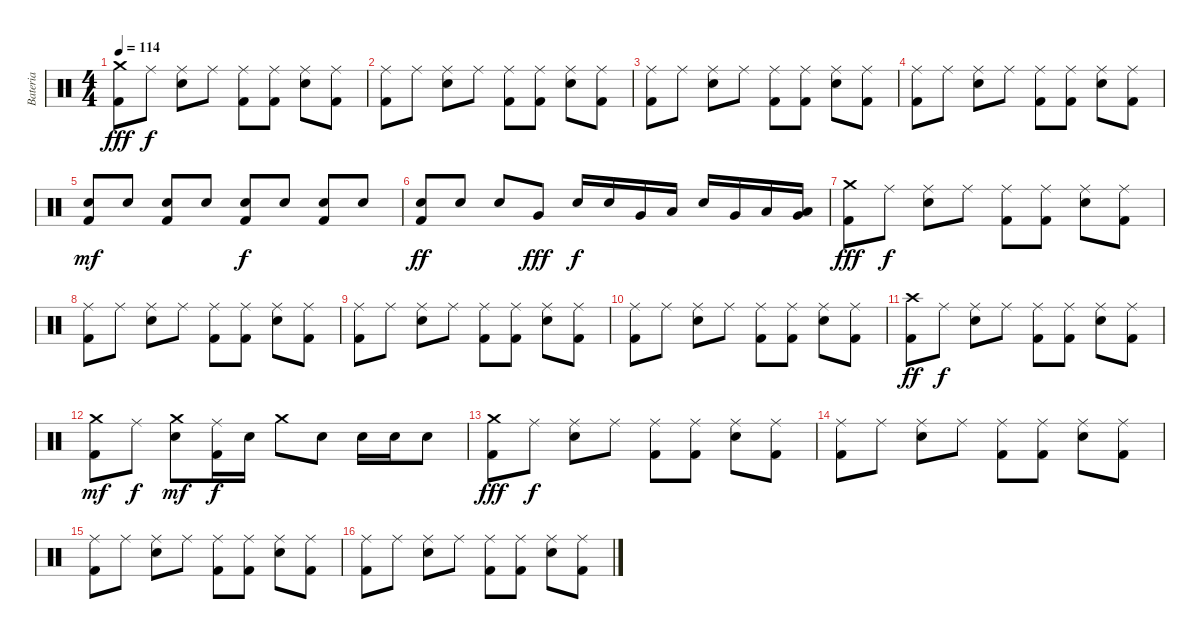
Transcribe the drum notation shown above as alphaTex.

\track ("Bateria" "Bateria") {instrument percussion}
\staff {score}
\articulation defaults
\ts (4 4)
\tempo 114
\clef neutral
\ks c
("Crash medium (hit)" "Kick (hit) 2").8{dy fff} "Ride (middle)".8{dy f} ("Ride (middle)" "Electric Snare (hit)").8 "Ride (middle)".8 ("Ride (middle)" "Kick (hit) 2").8 ("Ride (middle)" "Kick (hit) 2").8 ("Ride (middle)" "Electric Snare (hit)").8 ("Ride (middle)" "Kick (hit) 2").8 |
("Ride (middle)" "Kick (hit) 2").8 "Ride (middle)".8 ("Ride (middle)" "Electric Snare (hit)").8 "Ride (middle)".8 ("Ride (middle)" "Kick (hit) 2").8 ("Ride (middle)" "Kick (hit) 2").8 ("Ride (middle)" "Electric Snare (hit)").8 ("Ride (middle)" "Kick (hit) 2").8 |
("Ride (middle)" "Kick (hit) 2").8 "Ride (middle)".8 ("Ride (middle)" "Electric Snare (hit)").8 "Ride (middle)".8 ("Ride (middle)" "Kick (hit) 2").8 ("Ride (middle)" "Kick (hit) 2").8 ("Ride (middle)" "Electric Snare (hit)").8 ("Ride (middle)" "Kick (hit) 2").8 |
("Ride (middle)" "Kick (hit) 2").8 "Ride (middle)".8 ("Ride (middle)" "Electric Snare (hit)").8 "Ride (middle)".8 ("Ride (middle)" "Kick (hit) 2").8 ("Ride (middle)" "Kick (hit) 2").8 ("Ride (middle)" "Electric Snare (hit)").8 ("Ride (middle)" "Kick (hit) 2").8 |
("Electric Snare (hit)" "Kick (hit) 2").8{dy mf} "Electric Snare (hit)".8 ("Electric Snare (hit)" "Kick (hit) 2").8 "Electric Snare (hit)".8 ("Electric Snare (hit)" "Kick (hit) 2").8{dy f} "Electric Snare (hit)".8 ("Electric Snare (hit)" "Kick (hit) 2").8 "Electric Snare (hit)".8 |
("Electric Snare (hit)" "Kick (hit) 2").8{dy ff} "Electric Snare (hit)".8 "Electric Snare (hit)".8 "Very Low Tom (hit)".8{dy fff} "Electric Snare (hit)".16{dy f} "Electric Snare (hit)".16 "Very Low Tom (hit)".16 "Low Tom (hit)".16 "Electric Snare (hit)".16 "Very Low Tom (hit)".16 "Low Tom (hit)".16 ("Low Tom (hit)" "Very Low Tom (hit)").16 |
("Crash medium (hit)" "Kick (hit) 2").8{dy fff} "Ride (middle)".8{dy f} ("Ride (middle)" "Electric Snare (hit)").8 "Ride (middle)".8 ("Ride (middle)" "Kick (hit) 2").8 ("Ride (middle)" "Kick (hit) 2").8 ("Ride (middle)" "Electric Snare (hit)").8 ("Ride (middle)" "Kick (hit) 2").8 |
("Ride (middle)" "Kick (hit) 2").8 "Ride (middle)".8 ("Ride (middle)" "Electric Snare (hit)").8 "Ride (middle)".8 ("Ride (middle)" "Kick (hit) 2").8 ("Ride (middle)" "Kick (hit) 2").8 ("Ride (middle)" "Electric Snare (hit)").8 ("Ride (middle)" "Kick (hit) 2").8 |
("Ride (middle)" "Kick (hit) 2").8 "Ride (middle)".8 ("Ride (middle)" "Electric Snare (hit)").8 "Ride (middle)".8 ("Ride (middle)" "Kick (hit) 2").8 ("Ride (middle)" "Kick (hit) 2").8 ("Ride (middle)" "Electric Snare (hit)").8 ("Ride (middle)" "Kick (hit) 2").8 |
("Ride (middle)" "Kick (hit) 2").8 "Ride (middle)".8 ("Ride (middle)" "Electric Snare (hit)").8 "Ride (middle)".8 ("Ride (middle)" "Kick (hit) 2").8 ("Ride (middle)" "Kick (hit) 2").8 ("Ride (middle)" "Electric Snare (hit)").8 ("Ride (middle)" "Kick (hit) 2").8 |
("Crash high (hit)" "Kick (hit) 2").8{dy ff} "Ride (middle)".8{dy f} ("Ride (middle)" "Electric Snare (hit)").8 "Ride (middle)".8 ("Ride (middle)" "Kick (hit) 2").8 ("Ride (middle)" "Kick (hit) 2").8 ("Ride (middle)" "Electric Snare (hit)").8 ("Ride (middle)" "Kick (hit) 2").8 |
("Crash medium (hit)" "Kick (hit) 2").8{dy mf} "Ride (middle)".8{dy f} ("Crash medium (hit)" "Electric Snare (hit)").8{dy mf} ("Ride (middle)" "Kick (hit) 2").16{dy f} "Electric Snare (hit)".16 "Crash medium (hit)".8 "Electric Snare (hit)".8 "Electric Snare (hit)".16 "Electric Snare (hit)".16 "Electric Snare (hit)".8 |
("Crash medium (hit)" "Kick (hit) 2").8{dy fff} "Ride (middle)".8{dy f} ("Ride (middle)" "Electric Snare (hit)").8 "Ride (middle)".8 ("Ride (middle)" "Kick (hit) 2").8 ("Ride (middle)" "Kick (hit) 2").8 ("Ride (middle)" "Electric Snare (hit)").8 ("Ride (middle)" "Kick (hit) 2").8 |
("Ride (middle)" "Kick (hit) 2").8 "Ride (middle)".8 ("Ride (middle)" "Electric Snare (hit)").8 "Ride (middle)".8 ("Ride (middle)" "Kick (hit) 2").8 ("Ride (middle)" "Kick (hit) 2").8 ("Ride (middle)" "Electric Snare (hit)").8 ("Ride (middle)" "Kick (hit) 2").8 |
("Ride (middle)" "Kick (hit) 2").8 "Ride (middle)".8 ("Ride (middle)" "Electric Snare (hit)").8 "Ride (middle)".8 ("Ride (middle)" "Kick (hit) 2").8 ("Ride (middle)" "Kick (hit) 2").8 ("Ride (middle)" "Electric Snare (hit)").8 ("Ride (middle)" "Kick (hit) 2").8 |
("Ride (middle)" "Kick (hit) 2").8 "Ride (middle)".8 ("Ride (middle)" "Electric Snare (hit)").8 "Ride (middle)".8 ("Ride (middle)" "Kick (hit) 2").8 ("Ride (middle)" "Kick (hit) 2").8 ("Ride (middle)" "Electric Snare (hit)").8 ("Ride (middle)" "Kick (hit) 2").8
